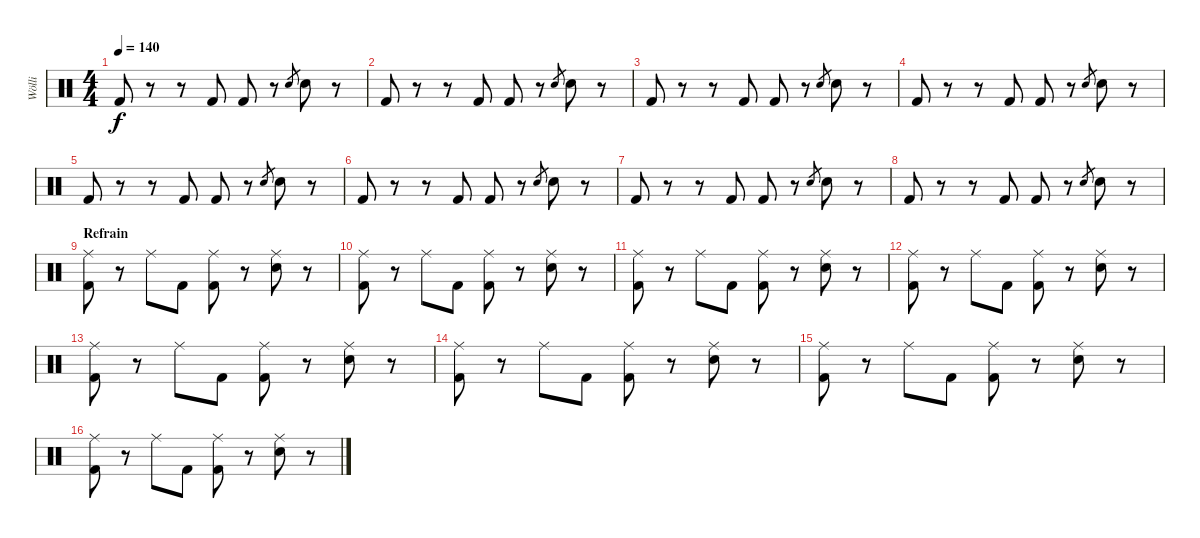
\track ("Wölli" "Wölli") {instrument percussion}
\staff {score}
\articulation defaults
\ts (4 4)
\tempo 140
\clef neutral
\ks c "Kick (hit) 2".8{dy f}
r.8 r.8 "Kick (hit) 2".8 "Kick (hit) 2".8 r.8 "Snare (hit) 2".8{gr} "Snare (hit) 2".8 r.8 |
"Kick (hit) 2".8 r.8 r.8 "Kick (hit) 2".8 "Kick (hit) 2".8 r.8 "Snare (hit) 2".8{gr} "Snare (hit) 2".8 r.8 |
"Kick (hit) 2".8 r.8 r.8 "Kick (hit) 2".8 "Kick (hit) 2".8 r.8 "Snare (hit) 2".8{gr} "Snare (hit) 2".8 r.8 |
"Kick (hit) 2".8 r.8 r.8 "Kick (hit) 2".8 "Kick (hit) 2".8 r.8 "Snare (hit) 2".8{gr} "Snare (hit) 2".8 r.8 |
"Kick (hit) 2".8 r.8 r.8 "Kick (hit) 2".8 "Kick (hit) 2".8 r.8 "Snare (hit) 2".8{gr} "Snare (hit) 2".8 r.8 |
"Kick (hit) 2".8 r.8 r.8 "Kick (hit) 2".8 "Kick (hit) 2".8 r.8 "Snare (hit) 2".8{gr} "Snare (hit) 2".8 r.8 |
"Kick (hit) 2".8 r.8 r.8 "Kick (hit) 2".8 "Kick (hit) 2".8 r.8 "Snare (hit) 2".8{gr} "Snare (hit) 2".8 r.8 |
"Kick (hit) 2".8 r.8 r.8 "Kick (hit) 2".8 "Kick (hit) 2".8 r.8 "Snare (hit) 2".8{gr} "Snare (hit) 2".8 r.8 |
\section ("" "Refrain")
("Ride (middle)" "Kick (hit) 2").8 r.8 "Ride (middle)".8 "Kick (hit) 2".8 ("Ride (middle)" "Kick (hit) 2").8 r.8 ("Ride (middle)" "Snare (hit) 2").8 r.8 |
("Ride (middle)" "Kick (hit) 2").8 r.8 "Ride (middle)".8 "Kick (hit) 2".8 ("Ride (middle)" "Kick (hit) 2").8 r.8 ("Ride (middle)" "Snare (hit) 2").8 r.8 |
("Ride (middle)" "Kick (hit) 2").8 r.8 "Ride (middle)".8 "Kick (hit) 2".8 ("Ride (middle)" "Kick (hit) 2").8 r.8 ("Ride (middle)" "Snare (hit) 2").8 r.8 |
("Ride (middle)" "Kick (hit) 2").8 r.8 "Ride (middle)".8 "Kick (hit) 2".8 ("Ride (middle)" "Kick (hit) 2").8 r.8 ("Ride (middle)" "Snare (hit) 2").8 r.8 |
("Ride (middle)" "Kick (hit) 2").8 r.8 "Ride (middle)".8 "Kick (hit) 2".8 ("Ride (middle)" "Kick (hit) 2").8 r.8 ("Ride (middle)" "Snare (hit) 2").8 r.8 |
("Ride (middle)" "Kick (hit) 2").8 r.8 "Ride (middle)".8 "Kick (hit) 2".8 ("Ride (middle)" "Kick (hit) 2").8 r.8 ("Ride (middle)" "Snare (hit) 2").8 r.8 |
("Ride (middle)" "Kick (hit) 2").8 r.8 "Ride (middle)".8 "Kick (hit) 2".8 ("Ride (middle)" "Kick (hit) 2").8 r.8 ("Ride (middle)" "Snare (hit) 2").8 r.8 |
("Ride (middle)" "Kick (hit) 2").8 r.8 "Ride (middle)".8 "Kick (hit) 2".8 ("Ride (middle)" "Kick (hit) 2").8 r.8 ("Ride (middle)" "Snare (hit) 2").8 r.8
